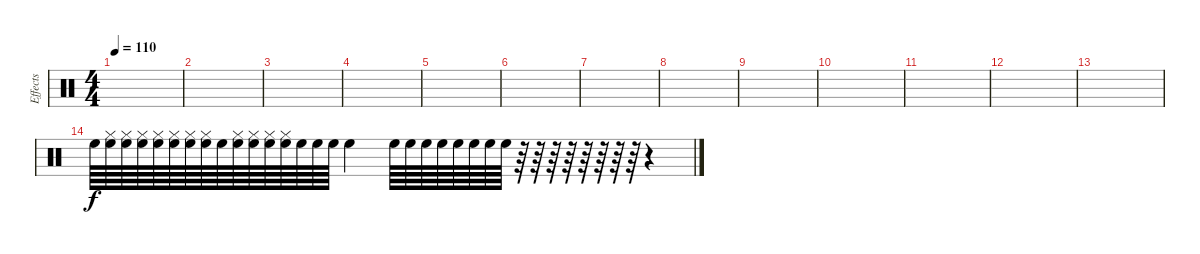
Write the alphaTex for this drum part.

\track ("Effects" "Effects") {instrument percussion}
\staff {score}
\articulation defaults
\ts (4 4)
\tempo 110
\clef neutral
\ks c
|
|
|
|
|
|
|
|
|
|
|
|
|
"High Floor Tom (hit)".64 ("Hi-Hat (closed)" "High Floor Tom (hit)").64 ("Hi-Hat (closed)" "High Floor Tom (hit)").64 ("Hi-Hat (closed)" "High Floor Tom (hit)").64 ("Hi-Hat (closed)" "High Floor Tom (hit)").64 ("Hi-Hat (closed)" "High Floor Tom (hit)").64 ("Hi-Hat (closed)" "High Floor Tom (hit)").64 ("Hi-Hat (closed)" "High Floor Tom (hit)").64 "High Floor Tom (hit)".64 ("Hi-Hat (closed)" "High Floor Tom (hit)").64 ("Hi-Hat (closed)" "High Floor Tom (hit)").64 ("Hi-Hat (closed)" "High Floor Tom (hit)").64 ("Hi-Hat (closed)" "High Floor Tom (hit)").64 "High Floor Tom (hit)".64 "High Floor Tom (hit)".64 "High Floor Tom (hit)".64 "High Floor Tom (hit)".4 "High Floor Tom (hit)".64 "High Floor Tom (hit)".64 "High Floor Tom (hit)".64 "High Floor Tom (hit)".64 "High Floor Tom (hit)".64 "High Floor Tom (hit)".64 "High Floor Tom (hit)".64 "High Floor Tom (hit)".64 r.64 r.64 r.64 r.64 r.64 r.64 r.64 r.64 r.4
